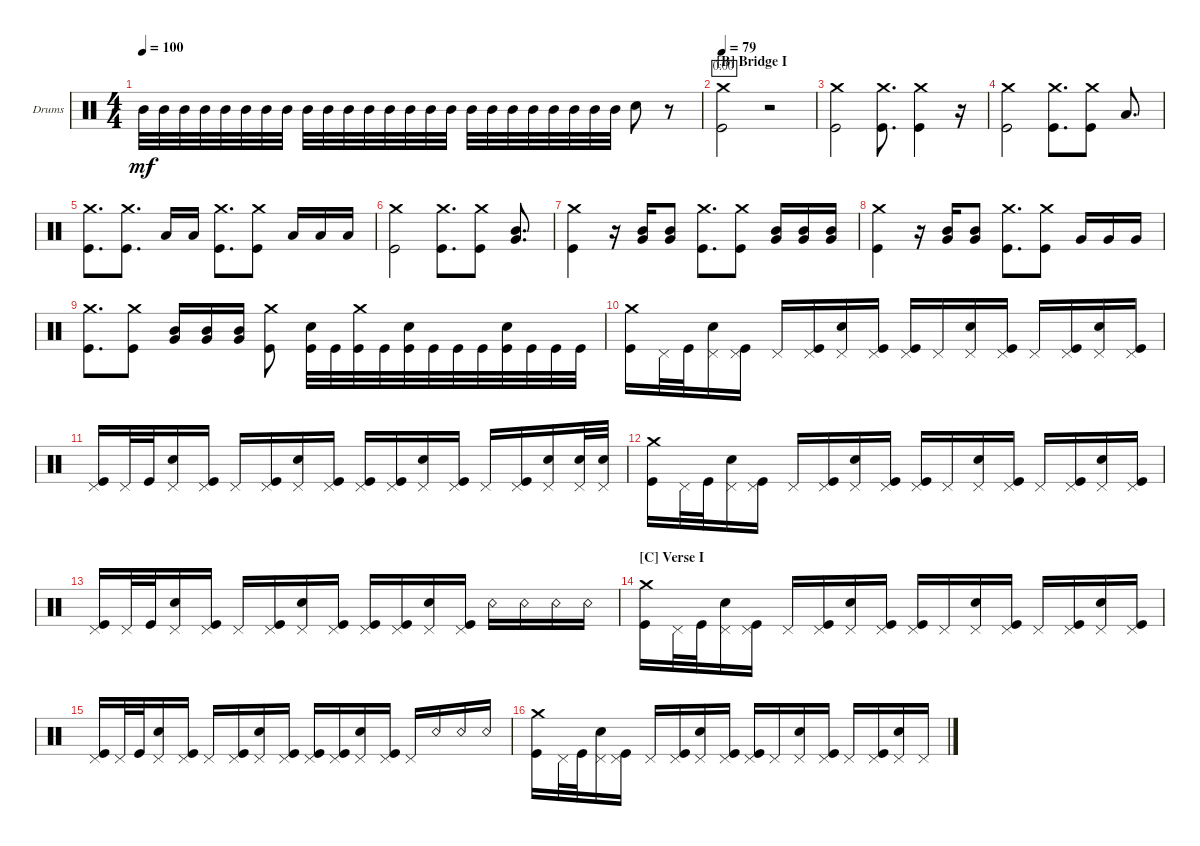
\defaultSystemsLayout 4
\bracketExtendMode groupsimilarinstruments
\firstSystemTrackNameOrientation horizontal
\otherSystemsTrackNameOrientation horizontal
\track ("Drums" "Drums") {instrument percussion}
\staff {score}
\articulation defaults
\ts (4 4)
\tempo 100
\clef neutral
\ks c "Mid Tom (hit)".32{dy mf} "Mid Tom (hit)".32{beam merge} "Mid Tom (hit)".32 "Mid Tom (hit)".32{beam merge} "Mid Tom (hit)".32 "Mid Tom (hit)".32{beam merge} "Mid Tom (hit)".32 "Mid Tom (hit)".32 "Mid Tom (hit)".32 "Mid Tom (hit)".32{beam merge} "Mid Tom (hit)".32 "Mid Tom (hit)".32{beam merge} "Mid Tom (hit)".32 "Mid Tom (hit)".32{beam merge} "Mid Tom (hit)".32 "Mid Tom (hit)".32 "Mid Tom (hit)".32 "Mid Tom (hit)".32{beam merge} "Mid Tom (hit)".32 "Mid Tom (hit)".32{beam merge} "Mid Tom (hit)".32 "Mid Tom (hit)".32{beam merge} "Mid Tom (hit)".32 "Mid Tom (hit)".32 "Snare (hit) 2".8
r.8 |
\section ("B" "Bridge I")
\tempo 79
("Kick (hit)" "Crash medium (hit)").2{timer} r.2 |
("Kick (hit)" "Crash medium (hit)").2 ("Kick (hit)" "Crash medium (hit)").8{d} ("Kick (hit)" "Crash medium (hit)").4 r.16 |
("Kick (hit)" "Crash medium (hit)").2 ("Kick (hit)" "Crash medium (hit)").8{d beam merge} ("Kick (hit)" "Crash medium (hit)").8 "Low Tom (hit)".8{d} |
("Kick (hit)" "Crash medium (hit)").8{d beam merge} ("Kick (hit)" "Crash medium (hit)").8{d beam split} "Low Tom (hit)".16 "Low Tom (hit)".16{beam split} ("Kick (hit)" "Crash medium (hit)").8{d} ("Kick (hit)" "Crash medium (hit)").8 "Low Tom (hit)".16{beam merge} "Low Tom (hit)".16 "Low Tom (hit)".16 |
("Kick (hit)" "Crash medium (hit)").2 ("Kick (hit)" "Crash medium (hit)").8{d} ("Kick (hit)" "Crash medium (hit)").8 ("Very Low Tom (hit)" "Mid Tom (hit)").8{d} |
("Kick (hit)" "Crash medium (hit)").4 r.16 ("Very Low Tom (hit)" "Mid Tom (hit)").16 ("Mid Tom (hit)" "Very Low Tom (hit)").8 ("Kick (hit)" "Crash medium (hit)").8{d} ("Kick (hit)" "Crash medium (hit)").8 ("Very Low Tom (hit)" "Mid Tom (hit)").16{beam merge} ("Mid Tom (hit)" "Very Low Tom (hit)").16 ("Mid Tom (hit)" "Very Low Tom (hit)").16 |
("Kick (hit)" "Crash medium (hit)").4 r.16 ("Very Low Tom (hit)" "Mid Tom (hit)").16 ("Mid Tom (hit)" "Very Low Tom (hit)").8 ("Kick (hit)" "Crash medium (hit)").8{d} ("Kick (hit)" "Crash medium (hit)").8 "Very Low Tom (hit)".16{beam merge} "Very Low Tom (hit)".16 "Very Low Tom (hit)".16 |
("Kick (hit)" "Crash medium (hit)").8{d} ("Kick (hit)" "Crash medium (hit)").8{beam split} ("Very Low Tom (hit)" "Mid Tom (hit)").16{beam merge} ("Mid Tom (hit)" "Very Low Tom (hit)").16{beam merge} ("Mid Tom (hit)" "Very Low Tom (hit)").16{beam split} ("Kick (hit)" "Crash medium (hit)").8{beam split} ("Snare (hit) 2" "Kick (hit)").32 "Kick (hit)".32{beam merge} ("Kick (hit)" "Crash medium (hit)").32 "Kick (hit)".32{beam merge} ("Kick (hit)" "Snare (hit) 2").32 "Kick (hit)".32{beam merge} "Kick (hit)".32 "Kick (hit)".32 ("Kick (hit)" "Snare (hit) 2").32 "Kick (hit)".32{beam merge} "Kick (hit)".32{beam merge} "Kick (hit)".32{beam merge} |
("Kick (hit)" "Crash medium (hit)").16 "Pedal Hi-Hat (hit)".32 "Kick (hit)".32{beam merge} ("Pedal Hi-Hat (hit)" "Snare (hit) 2").16 ("Pedal Hi-Hat (hit)" "Kick (hit)").16 "Pedal Hi-Hat (hit)".16 ("Pedal Hi-Hat (hit)" "Kick (hit)").16{beam merge} ("Pedal Hi-Hat (hit)" "Snare (hit) 2").16 ("Pedal Hi-Hat (hit)" "Kick (hit)").16 ("Kick (hit)" "Pedal Hi-Hat (hit)").16 "Pedal Hi-Hat (hit)".16{beam merge} ("Pedal Hi-Hat (hit)" "Snare (hit) 2").16 ("Pedal Hi-Hat (hit)" "Kick (hit)").16 "Pedal Hi-Hat (hit)".16 ("Pedal Hi-Hat (hit)" "Kick (hit)").16{beam merge} ("Pedal Hi-Hat (hit)" "Snare (hit) 2").16 ("Pedal Hi-Hat (hit)" "Kick (hit)").16 |
("Kick (hit)" "Pedal Hi-Hat (hit)").16 "Pedal Hi-Hat (hit)".32 "Kick (hit)".32{beam merge} ("Pedal Hi-Hat (hit)" "Snare (hit) 2").16 ("Pedal Hi-Hat (hit)" "Kick (hit)").16 "Pedal Hi-Hat (hit)".16 ("Pedal Hi-Hat (hit)" "Kick (hit)").16{beam merge} ("Pedal Hi-Hat (hit)" "Snare (hit) 2").16 ("Pedal Hi-Hat (hit)" "Kick (hit)").16 ("Kick (hit)" "Pedal Hi-Hat (hit)").16 ("Pedal Hi-Hat (hit)" "Kick (hit)").16{beam merge} ("Pedal Hi-Hat (hit)" "Snare (hit) 2").16 ("Pedal Hi-Hat (hit)" "Kick (hit)").16 "Pedal Hi-Hat (hit)".16 ("Pedal Hi-Hat (hit)" "Kick (hit)").16{beam merge} ("Pedal Hi-Hat (hit)" "Snare (hit) 2").16 ("Pedal Hi-Hat (hit)" "Snare (hit) 2").32 ("Snare (hit) 2" "Pedal Hi-Hat (hit)").32 |
("Kick (hit)" "Crash medium (hit)").16 "Pedal Hi-Hat (hit)".32 "Kick (hit)".32{beam merge} ("Pedal Hi-Hat (hit)" "Snare (hit) 2").16 ("Pedal Hi-Hat (hit)" "Kick (hit)").16 "Pedal Hi-Hat (hit)".16 ("Pedal Hi-Hat (hit)" "Kick (hit)").16{beam merge} ("Pedal Hi-Hat (hit)" "Snare (hit) 2").16 ("Pedal Hi-Hat (hit)" "Kick (hit)").16 ("Kick (hit)" "Pedal Hi-Hat (hit)").16 "Pedal Hi-Hat (hit)".16{beam merge} ("Pedal Hi-Hat (hit)" "Snare (hit) 2").16 ("Pedal Hi-Hat (hit)" "Kick (hit)").16 "Pedal Hi-Hat (hit)".16 ("Pedal Hi-Hat (hit)" "Kick (hit)").16{beam merge} ("Pedal Hi-Hat (hit)" "Snare (hit) 2").16 ("Pedal Hi-Hat (hit)" "Kick (hit)").16 |
("Kick (hit)" "Pedal Hi-Hat (hit)").16 "Pedal Hi-Hat (hit)".32 "Kick (hit)".32{beam merge} ("Pedal Hi-Hat (hit)" "Snare (hit) 2").16 ("Pedal Hi-Hat (hit)" "Kick (hit)").16 "Pedal Hi-Hat (hit)".16 ("Pedal Hi-Hat (hit)" "Kick (hit)").16{beam merge} ("Pedal Hi-Hat (hit)" "Snare (hit) 2").16 ("Pedal Hi-Hat (hit)" "Kick (hit)").16 ("Kick (hit)" "Pedal Hi-Hat (hit)").16 ("Pedal Hi-Hat (hit)" "Kick (hit)").16{beam merge} ("Pedal Hi-Hat (hit)" "Snare (hit) 2").16 ("Pedal Hi-Hat (hit)" "Kick (hit)").16 "Snare (rim shot)".16 "Snare (rim shot)".16{beam merge} "Snare (rim shot)".16 "Snare (rim shot)".16 |
\section ("C" "Verse I")
("Kick (hit)" "Crash medium (hit)").16 "Pedal Hi-Hat (hit)".32 "Kick (hit)".32{beam merge} ("Pedal Hi-Hat (hit)" "Snare (hit) 2").16 ("Pedal Hi-Hat (hit)" "Kick (hit)").16 "Pedal Hi-Hat (hit)".16 ("Pedal Hi-Hat (hit)" "Kick (hit)").16{beam merge} ("Pedal Hi-Hat (hit)" "Snare (hit) 2").16 ("Pedal Hi-Hat (hit)" "Kick (hit)").16 ("Kick (hit)" "Pedal Hi-Hat (hit)").16 "Pedal Hi-Hat (hit)".16{beam merge} ("Pedal Hi-Hat (hit)" "Snare (hit) 2").16 ("Pedal Hi-Hat (hit)" "Kick (hit)").16 "Pedal Hi-Hat (hit)".16 ("Pedal Hi-Hat (hit)" "Kick (hit)").16{beam merge} ("Pedal Hi-Hat (hit)" "Snare (hit) 2").16 ("Pedal Hi-Hat (hit)" "Kick (hit)").16 |
("Kick (hit)" "Pedal Hi-Hat (hit)").16 "Pedal Hi-Hat (hit)".32 "Kick (hit)".32{beam merge} ("Pedal Hi-Hat (hit)" "Snare (hit) 2").16 ("Pedal Hi-Hat (hit)" "Kick (hit)").16 "Pedal Hi-Hat (hit)".16 ("Pedal Hi-Hat (hit)" "Kick (hit)").16{beam merge} ("Pedal Hi-Hat (hit)" "Snare (hit) 2").16 ("Pedal Hi-Hat (hit)" "Kick (hit)").16 ("Kick (hit)" "Pedal Hi-Hat (hit)").16 ("Pedal Hi-Hat (hit)" "Kick (hit)").16{beam merge} ("Pedal Hi-Hat (hit)" "Snare (hit) 2").16 ("Pedal Hi-Hat (hit)" "Kick (hit)").16 "Pedal Hi-Hat (hit)".16 "Snare (rim shot)".16{beam merge} "Snare (rim shot)".16 "Snare (rim shot)".16 |
("Kick (hit)" "Crash medium (hit)").16 "Pedal Hi-Hat (hit)".32 "Kick (hit)".32{beam merge} ("Pedal Hi-Hat (hit)" "Snare (hit) 2").16 ("Pedal Hi-Hat (hit)" "Kick (hit)").16 "Pedal Hi-Hat (hit)".16 ("Pedal Hi-Hat (hit)" "Kick (hit)").16{beam merge} ("Pedal Hi-Hat (hit)" "Snare (hit) 2").16 ("Pedal Hi-Hat (hit)" "Kick (hit)").16 ("Kick (hit)" "Pedal Hi-Hat (hit)").16 "Pedal Hi-Hat (hit)".16{beam merge} ("Pedal Hi-Hat (hit)" "Snare (hit) 2").16 ("Pedal Hi-Hat (hit)" "Kick (hit)").16 "Pedal Hi-Hat (hit)".16 ("Pedal Hi-Hat (hit)" "Kick (hit)").16{beam merge} ("Pedal Hi-Hat (hit)" "Snare (hit) 2").16 "Pedal Hi-Hat (hit)".16
